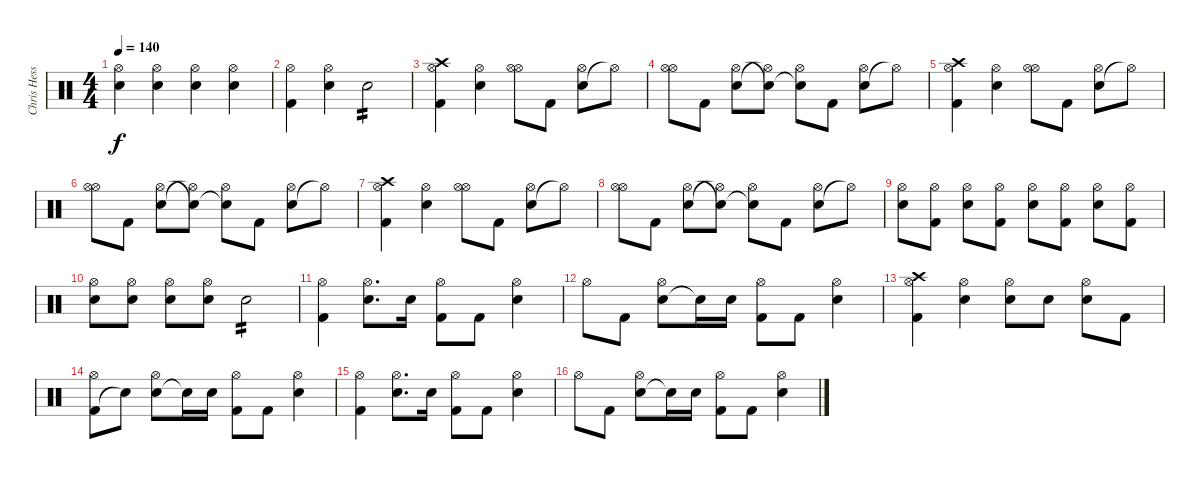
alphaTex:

\track ("Chris Hesse" "Chris Hess") {instrument percussion}
\staff {score}
\articulation defaults
\ts (4 4)
\tempo 140
\clef neutral
\ks c
("Electric Snare (hit)" "Hi-Hat (open)").4{dy f} ("Electric Snare (hit)" "Hi-Hat (open)").4 ("Electric Snare (hit)" "Hi-Hat (open)").4 ("Electric Snare (hit)" "Hi-Hat (open)").4 |
("Kick (hit) 2" "Hi-Hat (open)").4 ("Electric Snare (hit)" "Hi-Hat (open)").4 "Electric Snare (hit)".2{tp 2} |
("Kick (hit) 2" "Hi-Hat (open)" "Crash high (hit)").4 ("Electric Snare (hit)" "Hi-Hat (open)").4 ("Hi-Hat (open)" "Hi-Hat (open)").8 "Kick (hit) 2".8 ("Electric Snare (hit)" "Hi-Hat (open)").8 "Hi-Hat (open)"{t}.8 |
("Hi-Hat (open)" "Hi-Hat (open)").8 "Kick (hit) 2".8 ("Electric Snare (hit)" "Hi-Hat (open)").8 ("Hi-Hat (open)"{t} "Snare (hit)"{t}).8 ("Hi-Hat (open)" "Snare (hit)"{t}).8 "Kick (hit) 2".8 ("Electric Snare (hit)" "Hi-Hat (open)").8 "Hi-Hat (open)"{t}.8 |
("Kick (hit) 2" "Hi-Hat (open)" "Crash high (hit)").4 ("Electric Snare (hit)" "Hi-Hat (open)").4 ("Hi-Hat (open)" "Hi-Hat (open)").8 "Kick (hit) 2".8 ("Electric Snare (hit)" "Hi-Hat (open)").8 "Hi-Hat (open)"{t}.8 |
("Hi-Hat (open)" "Hi-Hat (open)").8 "Kick (hit) 2".8 ("Electric Snare (hit)" "Hi-Hat (open)").8 ("Hi-Hat (open)"{t} "Snare (hit)"{t}).8 ("Hi-Hat (open)" "Snare (hit)"{t}).8 "Kick (hit) 2".8 ("Electric Snare (hit)" "Hi-Hat (open)").8 "Hi-Hat (open)"{t}.8 |
("Kick (hit) 2" "Hi-Hat (open)" "Crash high (hit)").4 ("Electric Snare (hit)" "Hi-Hat (open)").4 ("Hi-Hat (open)" "Hi-Hat (open)").8 "Kick (hit) 2".8 ("Electric Snare (hit)" "Hi-Hat (open)").8 "Hi-Hat (open)"{t}.8 |
("Hi-Hat (open)" "Hi-Hat (open)").8 "Kick (hit) 2".8 ("Electric Snare (hit)" "Hi-Hat (open)").8 ("Hi-Hat (open)"{t} "Snare (hit)"{t}).8 ("Hi-Hat (open)" "Snare (hit)"{t}).8 "Kick (hit) 2".8 ("Electric Snare (hit)" "Hi-Hat (open)").8 "Hi-Hat (open)"{t}.8 |
("Electric Snare (hit)" "Hi-Hat (open)").8 ("Kick (hit) 2" "Hi-Hat (open)").8 ("Electric Snare (hit)" "Hi-Hat (open)").8 ("Kick (hit) 2" "Hi-Hat (open)").8 ("Electric Snare (hit)" "Hi-Hat (open)").8 ("Kick (hit) 2" "Hi-Hat (open)").8 ("Electric Snare (hit)" "Hi-Hat (open)").8 ("Kick (hit) 2" "Hi-Hat (open)").8 |
("Electric Snare (hit)" "Hi-Hat (open)").8 ("Electric Snare (hit)" "Hi-Hat (open)").8 ("Electric Snare (hit)" "Hi-Hat (open)").8 ("Electric Snare (hit)" "Hi-Hat (open)").8 "Electric Snare (hit)".2{tp 2} |
("Kick (hit) 2" "Hi-Hat (open)").4 ("Electric Snare (hit)" "Hi-Hat (open)").8{d} "Electric Snare (hit)".16 ("Kick (hit) 2" "Hi-Hat (open)").8 "Kick (hit) 2".8 ("Electric Snare (hit)" "Hi-Hat (open)").4 |
"Hi-Hat (open)".8 "Kick (hit) 2".8 ("Electric Snare (hit)" "Hi-Hat (open)").8 "Electric Snare (hit)"{t}.16 "Electric Snare (hit)".16 ("Kick (hit) 2" "Hi-Hat (open)").8 "Kick (hit) 2".8 ("Electric Snare (hit)" "Hi-Hat (open)").4 |
("Kick (hit) 2" "Hi-Hat (open)" "Crash high (hit)").4 ("Electric Snare (hit)" "Hi-Hat (open)").4 ("Electric Snare (hit)" "Hi-Hat (open)").8 "Electric Snare (hit)".8 ("Electric Snare (hit)" "Hi-Hat (open)").8 "Kick (hit) 2".8 |
("Kick (hit) 2" "Hi-Hat (open)").8 "Electric Snare (hit)"{t}.8 ("Electric Snare (hit)" "Hi-Hat (open)").8 "Snare (hit)"{t}.16 "Electric Snare (hit)".16 ("Kick (hit) 2" "Hi-Hat (open)").8 "Kick (hit) 2".8 ("Electric Snare (hit)" "Hi-Hat (open)").4 |
("Kick (hit) 2" "Hi-Hat (open)").4 ("Electric Snare (hit)" "Hi-Hat (open)").8{d} "Electric Snare (hit)".16 ("Kick (hit) 2" "Hi-Hat (open)").8 "Kick (hit) 2".8 ("Electric Snare (hit)" "Hi-Hat (open)").4 |
"Hi-Hat (open)".8 "Kick (hit) 2".8 ("Electric Snare (hit)" "Hi-Hat (open)").8 "Electric Snare (hit)"{t}.16 "Electric Snare (hit)".16 ("Kick (hit) 2" "Hi-Hat (open)").8 "Kick (hit) 2".8 ("Electric Snare (hit)" "Hi-Hat (open)").4
